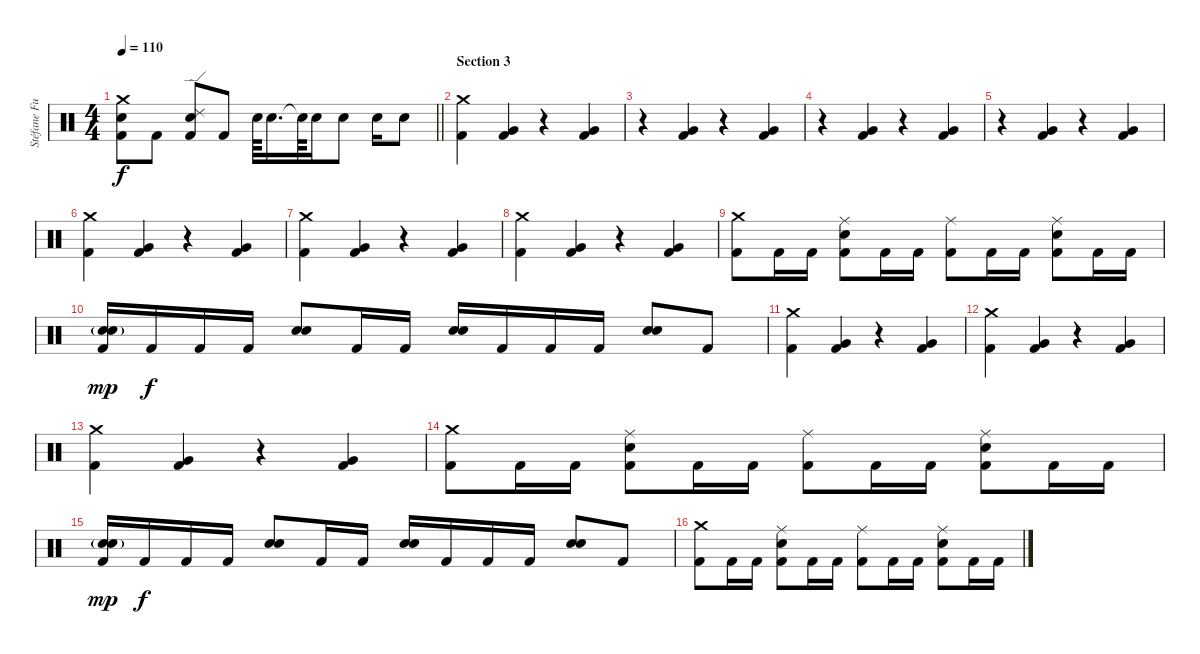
\track ("Stéfane Funebre" "Stéfane Fu") {instrument percussion}
\staff {score}
\articulation defaults
\ts (4 4)
\tempo 110
\clef neutral
\barLineRight lightlight
\ks c
("Crash medium (hit)" "Snare (hit) 2" "Kick (hit) 2").8{dy f} "Kick (hit) 2".8 ("Ride (edge) 2" "Snare (hit) 2" "Kick (hit) 2").8 "Kick (hit) 2".8 "Snare (hit) 2".64 "Snare (hit) 2".16{d} "Snare (hit)"{t}.64 "Snare (hit) 2".16 "Snare (hit) 2".8 "Snare (hit) 2".16 "Snare (hit) 2".8 |
\section ("" "Section 3")
("Crash medium (hit)" "Kick (hit) 2").4 ("Very Low Tom (hit)" "Kick (hit) 2").4 r.4 ("Very Low Tom (hit)" "Kick (hit) 2").4 |
r.4 ("Very Low Tom (hit)" "Kick (hit) 2").4 r.4 ("Very Low Tom (hit)" "Kick (hit) 2").4 |
r.4 ("Very Low Tom (hit)" "Kick (hit) 2").4 r.4 ("Very Low Tom (hit)" "Kick (hit) 2").4 |
r.4 ("Very Low Tom (hit)" "Kick (hit) 2").4 r.4 ("Very Low Tom (hit)" "Kick (hit) 2").4 |
("Crash medium (hit)" "Kick (hit) 2").4 ("Very Low Tom (hit)" "Kick (hit) 2").4 r.4 ("Very Low Tom (hit)" "Kick (hit) 2").4 |
("Crash medium (hit)" "Kick (hit) 2").4 ("Very Low Tom (hit)" "Kick (hit) 2").4 r.4 ("Very Low Tom (hit)" "Kick (hit) 2").4 |
("Crash medium (hit)" "Kick (hit) 2").4 ("Very Low Tom (hit)" "Kick (hit) 2").4 r.4 ("Very Low Tom (hit)" "Kick (hit) 2").4 |
("Crash medium (hit)" "Kick (hit) 2").8 "Kick (hit) 2".16 "Kick (hit) 2".16 ("Ride (middle)" "Snare (hit) 2" "Kick (hit) 2").8 "Kick (hit) 2".16 "Kick (hit) 2".16 ("Ride (middle)" "Kick (hit) 2").8 "Kick (hit) 2".16 "Kick (hit) 2".16 ("Ride (middle)" "Snare (hit) 2" "Kick (hit) 2").8 "Kick (hit) 2".16 "Kick (hit) 2".16 |
("Snare (hit) 2"{g} "Snare (hit) 2"{g} "Kick (hit) 2").16{dy mp} "Kick (hit) 2".16{dy f} "Kick (hit) 2".16 "Kick (hit) 2".16 ("Snare (hit) 2" "Snare (hit) 2").8 "Kick (hit) 2".16 "Kick (hit) 2".16 ("Snare (hit) 2" "Snare (hit) 2").16 "Kick (hit) 2".16 "Kick (hit) 2".16 "Kick (hit) 2".16 ("Snare (hit) 2" "Snare (hit) 2").8 "Kick (hit) 2".8 |
("Crash medium (hit)" "Kick (hit) 2").4 ("Very Low Tom (hit)" "Kick (hit) 2").4 r.4 ("Very Low Tom (hit)" "Kick (hit) 2").4 |
("Crash medium (hit)" "Kick (hit) 2").4 ("Very Low Tom (hit)" "Kick (hit) 2").4 r.4 ("Very Low Tom (hit)" "Kick (hit) 2").4 |
("Crash medium (hit)" "Kick (hit) 2").4 ("Very Low Tom (hit)" "Kick (hit) 2").4 r.4 ("Very Low Tom (hit)" "Kick (hit) 2").4 |
("Crash medium (hit)" "Kick (hit) 2").8 "Kick (hit) 2".16 "Kick (hit) 2".16 ("Ride (middle)" "Snare (hit) 2" "Kick (hit) 2").8 "Kick (hit) 2".16 "Kick (hit) 2".16 ("Ride (middle)" "Kick (hit) 2").8 "Kick (hit) 2".16 "Kick (hit) 2".16 ("Ride (middle)" "Snare (hit) 2" "Kick (hit) 2").8 "Kick (hit) 2".16 "Kick (hit) 2".16 |
("Snare (hit) 2"{g} "Snare (hit) 2"{g} "Kick (hit) 2").16{dy mp} "Kick (hit) 2".16{dy f} "Kick (hit) 2".16 "Kick (hit) 2".16 ("Snare (hit) 2" "Snare (hit) 2").8 "Kick (hit) 2".16 "Kick (hit) 2".16 ("Snare (hit) 2" "Snare (hit) 2").16 "Kick (hit) 2".16 "Kick (hit) 2".16 "Kick (hit) 2".16 ("Snare (hit) 2" "Snare (hit) 2").8 "Kick (hit) 2".8 |
("Crash medium (hit)" "Kick (hit) 2").8 "Kick (hit) 2".16 "Kick (hit) 2".16 ("Ride (middle)" "Snare (hit) 2" "Kick (hit) 2").8 "Kick (hit) 2".16 "Kick (hit) 2".16 ("Ride (middle)" "Kick (hit) 2").8 "Kick (hit) 2".16 "Kick (hit) 2".16 ("Ride (middle)" "Snare (hit) 2" "Kick (hit) 2").8 "Kick (hit) 2".16 "Kick (hit) 2".16
